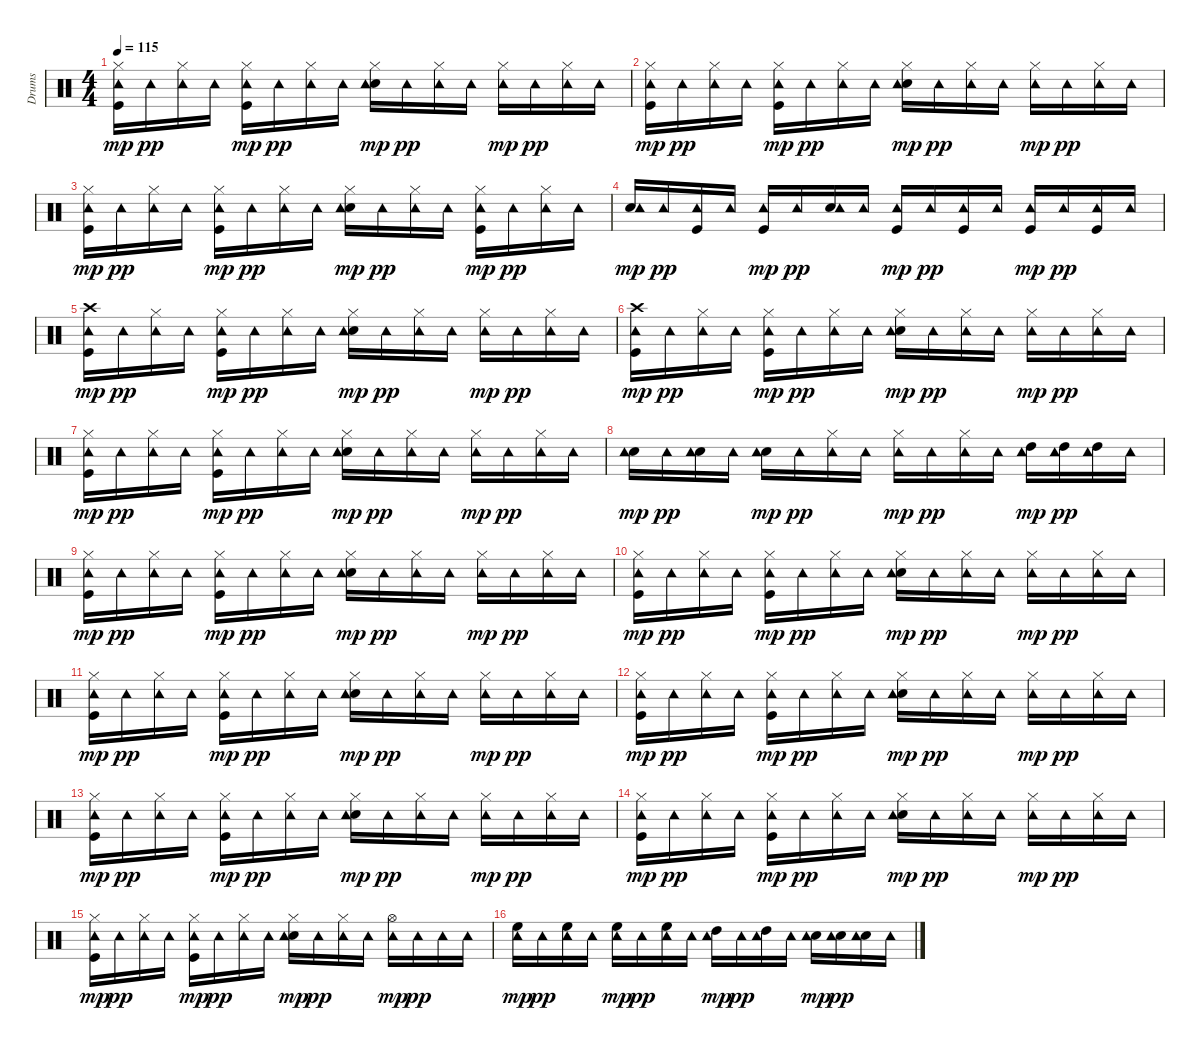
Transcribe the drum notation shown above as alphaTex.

\track ("Drums" "Drums") {instrument percussion}
\staff {score}
\articulation defaults
\ts (4 4)
\tempo 115
\clef neutral
\ks c
("Hi-Hat (closed)" "Tambourine (hit)" "Kick (hit)").16{dy mp} "Tambourine (hit)".16{dy pp} ("Hi-Hat (closed)" "Tambourine (hit)").16 "Tambourine (hit)".16 ("Hi-Hat (closed)" "Tambourine (hit)" "Kick (hit)").16{dy mp} "Tambourine (hit)".16{dy pp} ("Hi-Hat (closed)" "Tambourine (hit)").16 "Tambourine (hit)".16 ("Hi-Hat (closed)" "Snare (hit) 2" "Tambourine (hit)").16{dy mp} "Tambourine (hit)".16{dy pp} ("Hi-Hat (closed)" "Tambourine (hit)").16 "Tambourine (hit)".16 ("Hi-Hat (closed)" "Tambourine (hit)").16{dy mp} "Tambourine (hit)".16{dy pp} ("Hi-Hat (closed)" "Tambourine (hit)").16 "Tambourine (hit)".16 |
("Hi-Hat (closed)" "Tambourine (hit)" "Kick (hit)").16{dy mp} "Tambourine (hit)".16{dy pp} ("Hi-Hat (closed)" "Tambourine (hit)").16 "Tambourine (hit)".16 ("Hi-Hat (closed)" "Tambourine (hit)" "Kick (hit)").16{dy mp} "Tambourine (hit)".16{dy pp} ("Hi-Hat (closed)" "Tambourine (hit)").16 "Tambourine (hit)".16 ("Hi-Hat (closed)" "Snare (hit) 2" "Tambourine (hit)").16{dy mp} "Tambourine (hit)".16{dy pp} ("Hi-Hat (closed)" "Tambourine (hit)").16 "Tambourine (hit)".16 ("Hi-Hat (closed)" "Tambourine (hit)").16{dy mp} "Tambourine (hit)".16{dy pp} ("Hi-Hat (closed)" "Tambourine (hit)").16 "Tambourine (hit)".16 |
("Hi-Hat (closed)" "Tambourine (hit)" "Kick (hit)").16{dy mp} "Tambourine (hit)".16{dy pp} ("Hi-Hat (closed)" "Tambourine (hit)").16 "Tambourine (hit)".16 ("Hi-Hat (closed)" "Tambourine (hit)" "Kick (hit)").16{dy mp} "Tambourine (hit)".16{dy pp} ("Hi-Hat (closed)" "Tambourine (hit)").16 "Tambourine (hit)".16 ("Hi-Hat (closed)" "Snare (hit) 2" "Tambourine (hit)").16{dy mp} "Tambourine (hit)".16{dy pp} ("Hi-Hat (closed)" "Tambourine (hit)").16 "Tambourine (hit)".16 ("Hi-Hat (closed)" "Tambourine (hit)" "Kick (hit)").16{dy mp} "Tambourine (hit)".16{dy pp} ("Hi-Hat (closed)" "Tambourine (hit)").16 "Tambourine (hit)".16 |
("Snare (hit) 2" "Tambourine (hit)").16{dy mp} "Tambourine (hit)".16{dy pp} ("Tambourine (hit)" "Kick (hit)").16 "Tambourine (hit)".16 ("Tambourine (hit)" "Kick (hit)").16{dy mp} "Tambourine (hit)".16{dy pp} ("Snare (hit) 2" "Tambourine (hit)").16 "Tambourine (hit)".16 ("Tambourine (hit)" "Kick (hit)").16{dy mp} "Tambourine (hit)".16{dy pp} ("Tambourine (hit)" "Kick (hit)").16 "Tambourine (hit)".16 ("Tambourine (hit)" "Kick (hit)").16{dy mp} "Tambourine (hit)".16{dy pp} ("Tambourine (hit)" "Kick (hit)").16 "Tambourine (hit)".16 |
("Crash high (hit)" "Tambourine (hit)" "Kick (hit)").16{dy mp} "Tambourine (hit)".16{dy pp} ("Hi-Hat (closed)" "Tambourine (hit)").16 "Tambourine (hit)".16 ("Hi-Hat (closed)" "Tambourine (hit)" "Kick (hit)").16{dy mp} "Tambourine (hit)".16{dy pp} ("Hi-Hat (closed)" "Tambourine (hit)").16 "Tambourine (hit)".16 ("Hi-Hat (closed)" "Snare (hit) 2" "Tambourine (hit)").16{dy mp} "Tambourine (hit)".16{dy pp} ("Hi-Hat (closed)" "Tambourine (hit)").16 "Tambourine (hit)".16 ("Hi-Hat (closed)" "Tambourine (hit)").16{dy mp} "Tambourine (hit)".16{dy pp} ("Hi-Hat (closed)" "Tambourine (hit)").16 "Tambourine (hit)".16 |
("Crash high (hit)" "Tambourine (hit)" "Kick (hit)").16{dy mp} "Tambourine (hit)".16{dy pp} ("Hi-Hat (closed)" "Tambourine (hit)").16 "Tambourine (hit)".16 ("Hi-Hat (closed)" "Tambourine (hit)" "Kick (hit)").16{dy mp} "Tambourine (hit)".16{dy pp} ("Hi-Hat (closed)" "Tambourine (hit)").16 "Tambourine (hit)".16 ("Hi-Hat (closed)" "Snare (hit) 2" "Tambourine (hit)").16{dy mp} "Tambourine (hit)".16{dy pp} ("Hi-Hat (closed)" "Tambourine (hit)").16 "Tambourine (hit)".16 ("Hi-Hat (closed)" "Tambourine (hit)").16{dy mp} "Tambourine (hit)".16{dy pp} ("Hi-Hat (closed)" "Tambourine (hit)").16 "Tambourine (hit)".16 |
("Hi-Hat (closed)" "Tambourine (hit)" "Kick (hit)").16{dy mp} "Tambourine (hit)".16{dy pp} ("Hi-Hat (closed)" "Tambourine (hit)").16 "Tambourine (hit)".16 ("Hi-Hat (closed)" "Tambourine (hit)" "Kick (hit)").16{dy mp} "Tambourine (hit)".16{dy pp} ("Hi-Hat (closed)" "Tambourine (hit)").16 "Tambourine (hit)".16 ("Hi-Hat (closed)" "Snare (hit) 2" "Tambourine (hit)").16{dy mp} "Tambourine (hit)".16{dy pp} ("Hi-Hat (closed)" "Tambourine (hit)").16 "Tambourine (hit)".16 ("Hi-Hat (closed)" "Tambourine (hit)").16{dy mp} "Tambourine (hit)".16{dy pp} ("Hi-Hat (closed)" "Tambourine (hit)").16 "Tambourine (hit)".16 |
("Snare (hit) 2" "Tambourine (hit)").16{dy mp} "Tambourine (hit)".16{dy pp} ("Snare (hit) 2" "Tambourine (hit)").16 "Tambourine (hit)".16 ("Snare (hit) 2" "Tambourine (hit)").16{dy mp} "Tambourine (hit)".16{dy pp} ("Hi-Hat (closed)" "Tambourine (hit)").16 "Tambourine (hit)".16 ("Hi-Hat (closed)" "Tambourine (hit)").16{dy mp} "Tambourine (hit)".16{dy pp} ("Hi-Hat (closed)" "Tambourine (hit)").16 "Tambourine (hit)".16 ("High Tom (hit)" "Tambourine (hit)").16{dy mp} ("High Tom (hit)" "Tambourine (hit)").16{dy pp} ("High Tom (hit)" "Tambourine (hit)").16 "Tambourine (hit)".16 |
("Hi-Hat (closed)" "Tambourine (hit)" "Kick (hit)").16{dy mp} "Tambourine (hit)".16{dy pp} ("Hi-Hat (closed)" "Tambourine (hit)").16 "Tambourine (hit)".16 ("Hi-Hat (closed)" "Tambourine (hit)" "Kick (hit)").16{dy mp} "Tambourine (hit)".16{dy pp} ("Hi-Hat (closed)" "Tambourine (hit)").16 "Tambourine (hit)".16 ("Hi-Hat (closed)" "Snare (hit) 2" "Tambourine (hit)").16{dy mp} "Tambourine (hit)".16{dy pp} ("Hi-Hat (closed)" "Tambourine (hit)").16 "Tambourine (hit)".16 ("Hi-Hat (closed)" "Tambourine (hit)").16{dy mp} "Tambourine (hit)".16{dy pp} ("Hi-Hat (closed)" "Tambourine (hit)").16 "Tambourine (hit)".16 |
("Hi-Hat (closed)" "Tambourine (hit)" "Kick (hit)").16{dy mp} "Tambourine (hit)".16{dy pp} ("Hi-Hat (closed)" "Tambourine (hit)").16 "Tambourine (hit)".16 ("Hi-Hat (closed)" "Tambourine (hit)" "Kick (hit)").16{dy mp} "Tambourine (hit)".16{dy pp} ("Hi-Hat (closed)" "Tambourine (hit)").16 "Tambourine (hit)".16 ("Hi-Hat (closed)" "Snare (hit) 2" "Tambourine (hit)").16{dy mp} "Tambourine (hit)".16{dy pp} ("Hi-Hat (closed)" "Tambourine (hit)").16 "Tambourine (hit)".16 ("Hi-Hat (closed)" "Tambourine (hit)").16{dy mp} "Tambourine (hit)".16{dy pp} ("Hi-Hat (closed)" "Tambourine (hit)").16 "Tambourine (hit)".16 |
("Hi-Hat (closed)" "Tambourine (hit)" "Kick (hit)").16{dy mp} "Tambourine (hit)".16{dy pp} ("Hi-Hat (closed)" "Tambourine (hit)").16 "Tambourine (hit)".16 ("Hi-Hat (closed)" "Tambourine (hit)" "Kick (hit)").16{dy mp} "Tambourine (hit)".16{dy pp} ("Hi-Hat (closed)" "Tambourine (hit)").16 "Tambourine (hit)".16 ("Hi-Hat (closed)" "Snare (hit) 2" "Tambourine (hit)").16{dy mp} "Tambourine (hit)".16{dy pp} ("Hi-Hat (closed)" "Tambourine (hit)").16 "Tambourine (hit)".16 ("Hi-Hat (closed)" "Tambourine (hit)").16{dy mp} "Tambourine (hit)".16{dy pp} ("Hi-Hat (closed)" "Tambourine (hit)").16 "Tambourine (hit)".16 |
("Hi-Hat (closed)" "Tambourine (hit)" "Kick (hit)").16{dy mp} "Tambourine (hit)".16{dy pp} ("Hi-Hat (closed)" "Tambourine (hit)").16 "Tambourine (hit)".16 ("Hi-Hat (closed)" "Tambourine (hit)" "Kick (hit)").16{dy mp} "Tambourine (hit)".16{dy pp} ("Hi-Hat (closed)" "Tambourine (hit)").16 "Tambourine (hit)".16 ("Hi-Hat (closed)" "Snare (hit) 2" "Tambourine (hit)").16{dy mp} "Tambourine (hit)".16{dy pp} ("Hi-Hat (closed)" "Tambourine (hit)").16 "Tambourine (hit)".16 ("Hi-Hat (closed)" "Tambourine (hit)").16{dy mp} "Tambourine (hit)".16{dy pp} ("Hi-Hat (closed)" "Tambourine (hit)").16 "Tambourine (hit)".16 |
("Hi-Hat (closed)" "Tambourine (hit)" "Kick (hit)").16{dy mp} "Tambourine (hit)".16{dy pp} ("Hi-Hat (closed)" "Tambourine (hit)").16 "Tambourine (hit)".16 ("Hi-Hat (closed)" "Tambourine (hit)" "Kick (hit)").16{dy mp} "Tambourine (hit)".16{dy pp} ("Hi-Hat (closed)" "Tambourine (hit)").16 "Tambourine (hit)".16 ("Hi-Hat (closed)" "Snare (hit) 2" "Tambourine (hit)").16{dy mp} "Tambourine (hit)".16{dy pp} ("Hi-Hat (closed)" "Tambourine (hit)").16 "Tambourine (hit)".16 ("Hi-Hat (closed)" "Tambourine (hit)").16{dy mp} "Tambourine (hit)".16{dy pp} ("Hi-Hat (closed)" "Tambourine (hit)").16 "Tambourine (hit)".16 |
("Hi-Hat (closed)" "Tambourine (hit)" "Kick (hit)").16{dy mp} "Tambourine (hit)".16{dy pp} ("Hi-Hat (closed)" "Tambourine (hit)").16 "Tambourine (hit)".16 ("Hi-Hat (closed)" "Tambourine (hit)" "Kick (hit)").16{dy mp} "Tambourine (hit)".16{dy pp} ("Hi-Hat (closed)" "Tambourine (hit)").16 "Tambourine (hit)".16 ("Hi-Hat (closed)" "Snare (hit) 2" "Tambourine (hit)").16{dy mp} "Tambourine (hit)".16{dy pp} ("Hi-Hat (closed)" "Tambourine (hit)").16 "Tambourine (hit)".16 ("Hi-Hat (closed)" "Tambourine (hit)").16{dy mp} "Tambourine (hit)".16{dy pp} ("Hi-Hat (closed)" "Tambourine (hit)").16 "Tambourine (hit)".16 |
("Hi-Hat (closed)" "Tambourine (hit)" "Kick (hit)").16{dy mp} "Tambourine (hit)".16{dy pp} ("Hi-Hat (closed)" "Tambourine (hit)").16 "Tambourine (hit)".16 ("Hi-Hat (closed)" "Tambourine (hit)" "Kick (hit)").16{dy mp} "Tambourine (hit)".16{dy pp} ("Hi-Hat (closed)" "Tambourine (hit)").16 "Tambourine (hit)".16 ("Hi-Hat (closed)" "Snare (hit) 2" "Tambourine (hit)").16{dy mp} "Tambourine (hit)".16{dy pp} ("Hi-Hat (closed)" "Tambourine (hit)").16 "Tambourine (hit)".16 ("Hi-Hat (open)" "Tambourine (hit)").16{dy mp} "Tambourine (hit)".16{dy pp} "Tambourine (hit)".16 "Tambourine (hit)".16 |
("High Floor Tom (hit)" "Tambourine (hit)").16{dy mp} "Tambourine (hit)".16{dy pp} ("High Floor Tom (hit)" "Tambourine (hit)").16 "Tambourine (hit)".16 ("High Floor Tom (hit)" "Tambourine (hit)").16{dy mp} "Tambourine (hit)".16{dy pp} ("High Floor Tom (hit)" "Tambourine (hit)").16 "Tambourine (hit)".16 ("High Tom (hit)" "Tambourine (hit)").16{dy mp} "Tambourine (hit)".16{dy pp} ("High Tom (hit)" "Tambourine (hit)").16 "Tambourine (hit)".16 ("Snare (hit) 2" "Tambourine (hit)").16{dy mp} ("Snare (hit) 2" "Tambourine (hit)").16{dy pp} ("Snare (hit) 2" "Tambourine (hit)").16 "Tambourine (hit)".16
